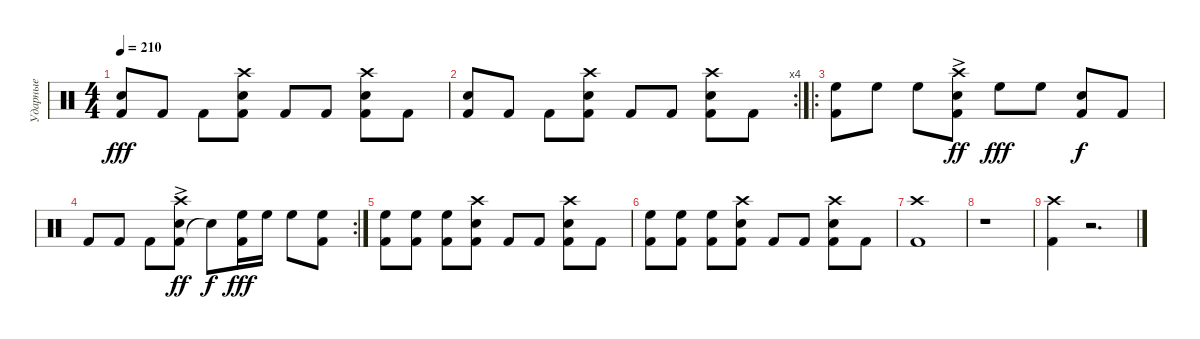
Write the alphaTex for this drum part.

\track ("Ударные" "Ударные") {instrument percussion}
\staff {score}
\articulation defaults
\ts (4 4)
\tempo 210
\clef neutral
\ks c
("Kick (hit) 2" "Snare (hit) 2").8{dy fff} "Kick (hit) 2".8 "Kick (hit) 2".8 ("Kick (hit) 2" "Snare (hit) 2" "Crash high (hit)").8 "Kick (hit) 2".8 "Kick (hit) 2".8 ("Kick (hit) 2" "Snare (hit) 2" "Crash high (hit)").8 "Kick (hit) 2".8 |
\rc 4
("Kick (hit) 2" "Snare (hit) 2").8 "Kick (hit) 2".8 "Kick (hit) 2".8 ("Kick (hit) 2" "Snare (hit) 2" "Crash high (hit)").8 "Kick (hit) 2".8 "Kick (hit) 2".8 ("Kick (hit) 2" "Snare (hit) 2" "Crash high (hit)").8 "Kick (hit) 2".8 |
\ro
("Kick (hit) 2" "High Floor Tom (hit)").8 "High Floor Tom (hit)".8 "High Floor Tom (hit)".8 ("Kick (hit) 2" "Snare (hit) 2" "Crash high (hit)"{ac}).8{dy ff} "High Floor Tom (hit)".8{dy fff} "High Floor Tom (hit)".8 ("Kick (hit) 2" "Snare (hit) 2").8{dy f} "Kick (hit) 2".8 |
\rc 2 "Kick (hit) 2".8 "Kick (hit) 2".8 "Kick (hit) 2".8
("Kick (hit) 2" "Snare (hit) 2" "Crash high (hit)"{ac}).8{dy ff} "Snare (hit)"{t}.8{dy f} ("Kick (hit) 2" "High Floor Tom (hit)").16{dy fff} "High Floor Tom (hit)".16 "High Floor Tom (hit)".8 ("Kick (hit) 2" "High Floor Tom (hit)").8 |
("Kick (hit) 2" "High Floor Tom (hit)").8 ("Kick (hit) 2" "High Floor Tom (hit)").8 ("Kick (hit) 2" "High Floor Tom (hit)").8 ("Kick (hit) 2" "Snare (hit) 2" "Crash high (hit)").8 "Kick (hit) 2".8 "Kick (hit) 2".8 ("Kick (hit) 2" "Snare (hit) 2" "Crash high (hit)").8 "Kick (hit) 2".8 |
("Kick (hit) 2" "High Floor Tom (hit)").8 ("Kick (hit) 2" "High Floor Tom (hit)").8 ("Kick (hit) 2" "High Floor Tom (hit)").8 ("Kick (hit) 2" "Snare (hit) 2" "Crash high (hit)").8 "Kick (hit) 2".8 "Kick (hit) 2".8 ("Kick (hit) 2" "Snare (hit) 2" "Crash high (hit)").8 "Kick (hit) 2".8 |
("Kick (hit) 2" "Crash high (hit)").1 |
r.1 |
("Kick (hit) 2" "Crash high (hit)").4 r.2{d}
